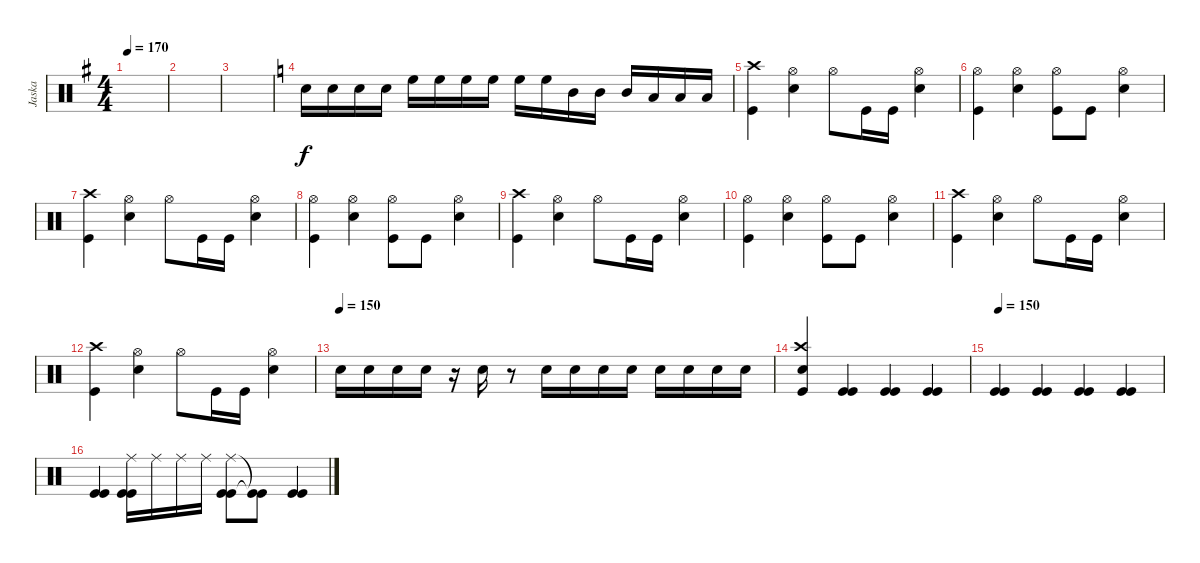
\track ("Jaska" "Jaska") {instrument percussion}
\staff {score}
\articulation defaults
\ts (4 4)
\tempo 170
\clef neutral
\ks g
|
|
|
\ks c "Snare (hit) 2".16 "Snare (hit) 2".16 "Snare (hit) 2".16 "Snare (hit) 2".16 "High Floor Tom (hit)".16 "High Floor Tom (hit)".16 "High Floor Tom (hit)".16 "High Floor Tom (hit)".16 "High Floor Tom (hit)".16 "High Floor Tom (hit)".16 "Mid Tom (hit)".16 "Mid Tom (hit)".16 "Mid Tom (hit)".16 "Low Tom (hit)".16 "Low Tom (hit)".16 "Low Tom (hit)".16
|
("Crash high (hit)" "Kick (hit)").4 ("Hi-Hat (open)" "Snare (hit) 2").4 "Hi-Hat (open)".8 "Kick (hit)".16 "Kick (hit)".16 ("Hi-Hat (open)" "Snare (hit) 2").4 |
("Hi-Hat (open)" "Kick (hit)").4 ("Hi-Hat (open)" "Snare (hit) 2").4 ("Hi-Hat (open)" "Kick (hit)").8 "Kick (hit)".8 ("Hi-Hat (open)" "Snare (hit) 2").4 |
("Crash high (hit)" "Kick (hit)").4 ("Hi-Hat (open)" "Snare (hit) 2").4 "Hi-Hat (open)".8 "Kick (hit)".16 "Kick (hit)".16 ("Hi-Hat (open)" "Snare (hit) 2").4 |
("Hi-Hat (open)" "Kick (hit)").4 ("Hi-Hat (open)" "Snare (hit) 2").4 ("Hi-Hat (open)" "Kick (hit)").8 "Kick (hit)".8 ("Hi-Hat (open)" "Snare (hit) 2").4 |
("Crash high (hit)" "Kick (hit)").4 ("Hi-Hat (open)" "Snare (hit) 2").4 "Hi-Hat (open)".8 "Kick (hit)".16 "Kick (hit)".16 ("Hi-Hat (open)" "Snare (hit) 2").4 |
("Hi-Hat (open)" "Kick (hit)").4 ("Hi-Hat (open)" "Snare (hit) 2").4 ("Hi-Hat (open)" "Kick (hit)").8 "Kick (hit)".8 ("Hi-Hat (open)" "Snare (hit) 2").4 |
("Crash high (hit)" "Kick (hit)").4 ("Hi-Hat (open)" "Snare (hit) 2").4 "Hi-Hat (open)".8 "Kick (hit)".16 "Kick (hit)".16 ("Hi-Hat (open)" "Snare (hit) 2").4 |
("Crash high (hit)" "Kick (hit)").4 ("Hi-Hat (open)" "Snare (hit) 2").4 "Hi-Hat (open)".8 "Kick (hit)".16 "Kick (hit)".16 ("Hi-Hat (open)" "Snare (hit) 2").4 |
\tempo (150)
"Snare (hit) 2".16 "Snare (hit) 2".16 "Snare (hit) 2".16 "Snare (hit) 2".16 r.16 "Snare (hit) 2".16 r.8 "Snare (hit) 2".16 "Snare (hit) 2".16 "Snare (hit) 2".16 "Snare (hit) 2".16 "Snare (hit) 2".16 "Snare (hit) 2".16 "Snare (hit) 2".16 "Snare (hit) 2".16 |
("Crash high (hit)" "Snare (hit) 2" "Kick (hit)").4 ("Kick (hit)" "Kick (hit)").4 ("Kick (hit)" "Kick (hit)").4 ("Kick (hit)" "Kick (hit)").4 |
\tempo 150
("Kick (hit)" "Kick (hit)").4 ("Kick (hit)" "Kick (hit)").4 ("Kick (hit)" "Kick (hit)").4 ("Kick (hit)" "Kick (hit)").4 |
("Kick (hit)" "Kick (hit)").4 ("Ride (middle)" "Kick (hit)" "Kick (hit)").16 "Ride (middle)".16 "Ride (middle)".16 "Ride (middle)".16 ("Ride (middle)" "Kick (hit)" "Kick (hit)").8 ("Kick (hit)"{t} "Kick (hit)"{t}).8 ("Kick (hit)" "Kick (hit)").4
